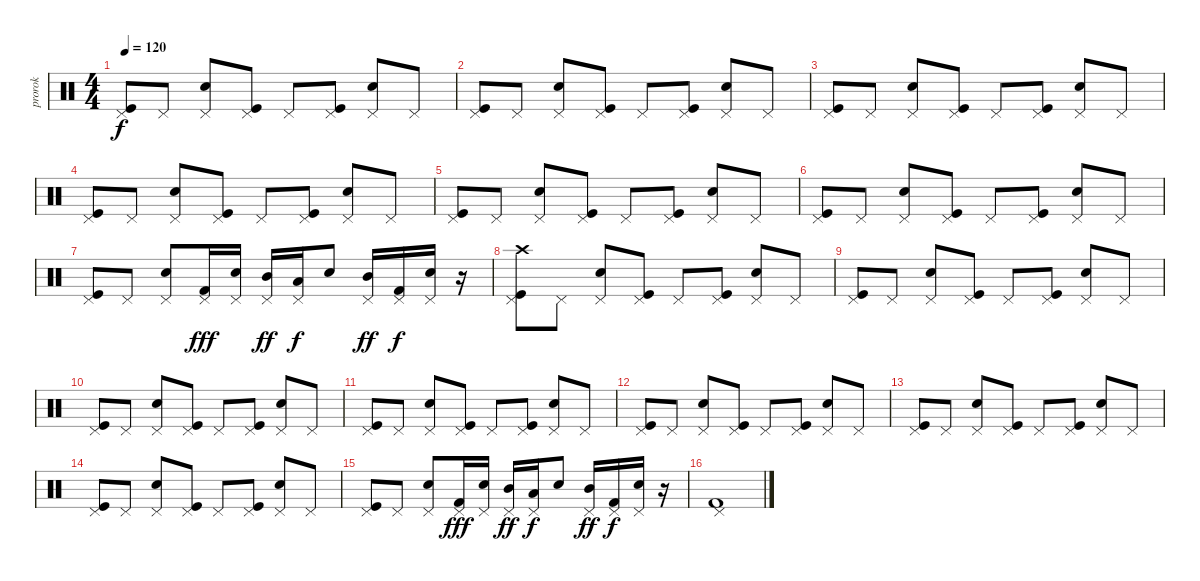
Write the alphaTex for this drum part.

\track ("prorok" "prorok") {instrument percussion}
\staff {score}
\articulation defaults
\ts (4 4)
\tempo 120
\clef neutral
\ks c
("Kick (hit)" "Pedal Hi-Hat (hit)").8{dy f} "Pedal Hi-Hat (hit)".8 ("Electric Snare (hit)" "Pedal Hi-Hat (hit)").8 ("Kick (hit)" "Pedal Hi-Hat (hit)").8 "Pedal Hi-Hat (hit)".8 ("Kick (hit)" "Pedal Hi-Hat (hit)").8 ("Electric Snare (hit)" "Pedal Hi-Hat (hit)").8 "Pedal Hi-Hat (hit)".8 |
("Kick (hit)" "Pedal Hi-Hat (hit)").8 "Pedal Hi-Hat (hit)".8 ("Electric Snare (hit)" "Pedal Hi-Hat (hit)").8 ("Kick (hit)" "Pedal Hi-Hat (hit)").8 "Pedal Hi-Hat (hit)".8 ("Kick (hit)" "Pedal Hi-Hat (hit)").8 ("Electric Snare (hit)" "Pedal Hi-Hat (hit)").8 "Pedal Hi-Hat (hit)".8 |
("Kick (hit)" "Pedal Hi-Hat (hit)").8 "Pedal Hi-Hat (hit)".8 ("Electric Snare (hit)" "Pedal Hi-Hat (hit)").8 ("Kick (hit)" "Pedal Hi-Hat (hit)").8 "Pedal Hi-Hat (hit)".8 ("Kick (hit)" "Pedal Hi-Hat (hit)").8 ("Electric Snare (hit)" "Pedal Hi-Hat (hit)").8 "Pedal Hi-Hat (hit)".8 |
("Kick (hit)" "Pedal Hi-Hat (hit)").8 "Pedal Hi-Hat (hit)".8 ("Electric Snare (hit)" "Pedal Hi-Hat (hit)").8 ("Kick (hit)" "Pedal Hi-Hat (hit)").8 "Pedal Hi-Hat (hit)".8 ("Kick (hit)" "Pedal Hi-Hat (hit)").8 ("Electric Snare (hit)" "Pedal Hi-Hat (hit)").8 "Pedal Hi-Hat (hit)".8 |
("Kick (hit)" "Pedal Hi-Hat (hit)").8 "Pedal Hi-Hat (hit)".8 ("Electric Snare (hit)" "Pedal Hi-Hat (hit)").8 ("Kick (hit)" "Pedal Hi-Hat (hit)").8 "Pedal Hi-Hat (hit)".8 ("Kick (hit)" "Pedal Hi-Hat (hit)").8 ("Electric Snare (hit)" "Pedal Hi-Hat (hit)").8 "Pedal Hi-Hat (hit)".8 |
("Kick (hit)" "Pedal Hi-Hat (hit)").8 "Pedal Hi-Hat (hit)".8 ("Electric Snare (hit)" "Pedal Hi-Hat (hit)").8 ("Kick (hit)" "Pedal Hi-Hat (hit)").8 "Pedal Hi-Hat (hit)".8 ("Kick (hit)" "Pedal Hi-Hat (hit)").8 ("Electric Snare (hit)" "Pedal Hi-Hat (hit)").8 "Pedal Hi-Hat (hit)".8 |
("Kick (hit)" "Pedal Hi-Hat (hit)").8 "Pedal Hi-Hat (hit)".8 ("Electric Snare (hit)" "Pedal Hi-Hat (hit)").8 ("Kick (hit) 2" "Pedal Hi-Hat (hit)").16{dy fff} ("Electric Snare (hit)" "Pedal Hi-Hat (hit)").16 ("Mid Tom (hit)" "Pedal Hi-Hat (hit)").16{dy ff} ("Low Tom (hit)" "Pedal Hi-Hat (hit)").16{dy f} "Electric Snare (hit)".8 ("Mid Tom (hit)" "Pedal Hi-Hat (hit)").16{dy ff} ("Kick (hit) 2" "Pedal Hi-Hat (hit)").16{dy f} ("Electric Snare (hit)" "Pedal Hi-Hat (hit)").16 r.16 |
("Kick (hit)" "Pedal Hi-Hat (hit)" "Crash high (hit)").8 "Pedal Hi-Hat (hit)".8 ("Electric Snare (hit)" "Pedal Hi-Hat (hit)").8 ("Kick (hit)" "Pedal Hi-Hat (hit)").8 "Pedal Hi-Hat (hit)".8 ("Kick (hit)" "Pedal Hi-Hat (hit)").8 ("Electric Snare (hit)" "Pedal Hi-Hat (hit)").8 "Pedal Hi-Hat (hit)".8 |
("Kick (hit)" "Pedal Hi-Hat (hit)").8 "Pedal Hi-Hat (hit)".8 ("Electric Snare (hit)" "Pedal Hi-Hat (hit)").8 ("Kick (hit)" "Pedal Hi-Hat (hit)").8 "Pedal Hi-Hat (hit)".8 ("Kick (hit)" "Pedal Hi-Hat (hit)").8 ("Electric Snare (hit)" "Pedal Hi-Hat (hit)").8 "Pedal Hi-Hat (hit)".8 |
("Kick (hit)" "Pedal Hi-Hat (hit)").8 "Pedal Hi-Hat (hit)".8 ("Electric Snare (hit)" "Pedal Hi-Hat (hit)").8 ("Kick (hit)" "Pedal Hi-Hat (hit)").8 "Pedal Hi-Hat (hit)".8 ("Kick (hit)" "Pedal Hi-Hat (hit)").8 ("Electric Snare (hit)" "Pedal Hi-Hat (hit)").8 "Pedal Hi-Hat (hit)".8 |
("Kick (hit)" "Pedal Hi-Hat (hit)").8 "Pedal Hi-Hat (hit)".8 ("Electric Snare (hit)" "Pedal Hi-Hat (hit)").8 ("Kick (hit)" "Pedal Hi-Hat (hit)").8 "Pedal Hi-Hat (hit)".8 ("Kick (hit)" "Pedal Hi-Hat (hit)").8 ("Electric Snare (hit)" "Pedal Hi-Hat (hit)").8 "Pedal Hi-Hat (hit)".8 |
("Kick (hit)" "Pedal Hi-Hat (hit)").8 "Pedal Hi-Hat (hit)".8 ("Electric Snare (hit)" "Pedal Hi-Hat (hit)").8 ("Kick (hit)" "Pedal Hi-Hat (hit)").8 "Pedal Hi-Hat (hit)".8 ("Kick (hit)" "Pedal Hi-Hat (hit)").8 ("Electric Snare (hit)" "Pedal Hi-Hat (hit)").8 "Pedal Hi-Hat (hit)".8 |
("Kick (hit)" "Pedal Hi-Hat (hit)").8 "Pedal Hi-Hat (hit)".8 ("Electric Snare (hit)" "Pedal Hi-Hat (hit)").8 ("Kick (hit)" "Pedal Hi-Hat (hit)").8 "Pedal Hi-Hat (hit)".8 ("Kick (hit)" "Pedal Hi-Hat (hit)").8 ("Electric Snare (hit)" "Pedal Hi-Hat (hit)").8 "Pedal Hi-Hat (hit)".8 |
("Kick (hit)" "Pedal Hi-Hat (hit)").8 "Pedal Hi-Hat (hit)".8 ("Electric Snare (hit)" "Pedal Hi-Hat (hit)").8 ("Kick (hit)" "Pedal Hi-Hat (hit)").8 "Pedal Hi-Hat (hit)".8 ("Kick (hit)" "Pedal Hi-Hat (hit)").8 ("Electric Snare (hit)" "Pedal Hi-Hat (hit)").8 "Pedal Hi-Hat (hit)".8 |
("Kick (hit)" "Pedal Hi-Hat (hit)").8 "Pedal Hi-Hat (hit)".8 ("Electric Snare (hit)" "Pedal Hi-Hat (hit)").8 ("Kick (hit) 2" "Pedal Hi-Hat (hit)").16{dy fff} ("Electric Snare (hit)" "Pedal Hi-Hat (hit)").16 ("Mid Tom (hit)" "Pedal Hi-Hat (hit)").16{dy ff} ("Low Tom (hit)" "Pedal Hi-Hat (hit)").16{dy f} "Electric Snare (hit)".8 ("Mid Tom (hit)" "Pedal Hi-Hat (hit)").16{dy ff} ("Kick (hit) 2" "Pedal Hi-Hat (hit)").16{dy f} ("Electric Snare (hit)" "Pedal Hi-Hat (hit)").16 r.16 |
("Pedal Hi-Hat (hit)" "Kick (hit) 2").1
